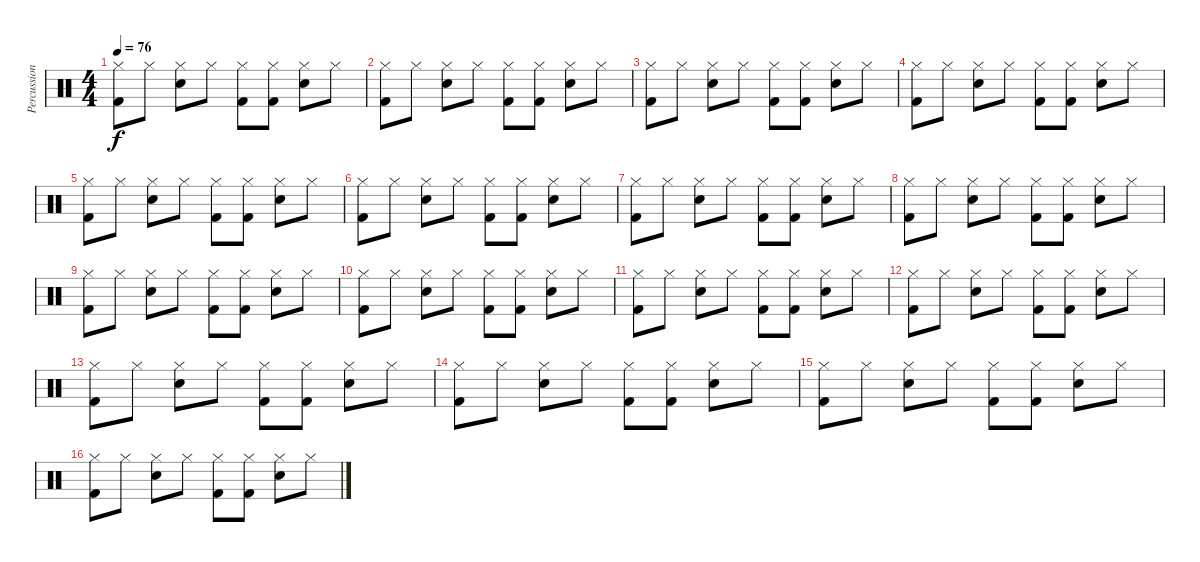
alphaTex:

\track ("Percussion" "Percussion") {instrument percussion}
\staff {score}
\articulation defaults
\ts (4 4)
\tempo 76
\clef neutral
\ks c
("Hi-Hat (closed)" "Kick (hit) 2").8{dy f} "Hi-Hat (closed)".8 ("Hi-Hat (closed)" "Snare (hit) 2").8 "Hi-Hat (closed)".8 ("Hi-Hat (closed)" "Kick (hit) 2").8 ("Hi-Hat (closed)" "Kick (hit) 2").8 ("Hi-Hat (closed)" "Snare (hit) 2").8 "Hi-Hat (closed)".8 |
("Hi-Hat (closed)" "Kick (hit) 2").8 "Hi-Hat (closed)".8 ("Hi-Hat (closed)" "Snare (hit) 2").8 "Hi-Hat (closed)".8 ("Hi-Hat (closed)" "Kick (hit) 2").8 ("Hi-Hat (closed)" "Kick (hit) 2").8 ("Hi-Hat (closed)" "Snare (hit) 2").8 "Hi-Hat (closed)".8 |
("Hi-Hat (closed)" "Kick (hit) 2").8 "Hi-Hat (closed)".8 ("Hi-Hat (closed)" "Snare (hit) 2").8 "Hi-Hat (closed)".8 ("Hi-Hat (closed)" "Kick (hit) 2").8 ("Hi-Hat (closed)" "Kick (hit) 2").8 ("Hi-Hat (closed)" "Snare (hit) 2").8 "Hi-Hat (closed)".8 |
("Hi-Hat (closed)" "Kick (hit) 2").8 "Hi-Hat (closed)".8 ("Hi-Hat (closed)" "Snare (hit) 2").8 "Hi-Hat (closed)".8 ("Hi-Hat (closed)" "Kick (hit) 2").8 ("Hi-Hat (closed)" "Kick (hit) 2").8 ("Hi-Hat (closed)" "Snare (hit) 2").8 "Hi-Hat (closed)".8 |
("Hi-Hat (closed)" "Kick (hit) 2").8 "Hi-Hat (closed)".8 ("Hi-Hat (closed)" "Snare (hit) 2").8 "Hi-Hat (closed)".8 ("Hi-Hat (closed)" "Kick (hit) 2").8 ("Hi-Hat (closed)" "Kick (hit) 2").8 ("Hi-Hat (closed)" "Snare (hit) 2").8 "Hi-Hat (closed)".8 |
("Hi-Hat (closed)" "Kick (hit) 2").8 "Hi-Hat (closed)".8 ("Hi-Hat (closed)" "Snare (hit) 2").8 "Hi-Hat (closed)".8 ("Hi-Hat (closed)" "Kick (hit) 2").8 ("Hi-Hat (closed)" "Kick (hit) 2").8 ("Hi-Hat (closed)" "Snare (hit) 2").8 "Hi-Hat (closed)".8 |
("Hi-Hat (closed)" "Kick (hit) 2").8 "Hi-Hat (closed)".8 ("Hi-Hat (closed)" "Snare (hit) 2").8 "Hi-Hat (closed)".8 ("Hi-Hat (closed)" "Kick (hit) 2").8 ("Hi-Hat (closed)" "Kick (hit) 2").8 ("Hi-Hat (closed)" "Snare (hit) 2").8 "Hi-Hat (closed)".8 |
("Hi-Hat (closed)" "Kick (hit) 2").8 "Hi-Hat (closed)".8 ("Hi-Hat (closed)" "Snare (hit) 2").8 "Hi-Hat (closed)".8 ("Hi-Hat (closed)" "Kick (hit) 2").8 ("Hi-Hat (closed)" "Kick (hit) 2").8 ("Hi-Hat (closed)" "Snare (hit) 2").8 "Hi-Hat (closed)".8 |
("Hi-Hat (closed)" "Kick (hit) 2").8 "Hi-Hat (closed)".8 ("Hi-Hat (closed)" "Snare (hit) 2").8 "Hi-Hat (closed)".8 ("Hi-Hat (closed)" "Kick (hit) 2").8 ("Hi-Hat (closed)" "Kick (hit) 2").8 ("Hi-Hat (closed)" "Snare (hit) 2").8 "Hi-Hat (closed)".8 |
("Hi-Hat (closed)" "Kick (hit) 2").8 "Hi-Hat (closed)".8 ("Hi-Hat (closed)" "Snare (hit) 2").8 "Hi-Hat (closed)".8 ("Hi-Hat (closed)" "Kick (hit) 2").8 ("Hi-Hat (closed)" "Kick (hit) 2").8 ("Hi-Hat (closed)" "Snare (hit) 2").8 "Hi-Hat (closed)".8 |
("Hi-Hat (closed)" "Kick (hit) 2").8 "Hi-Hat (closed)".8 ("Hi-Hat (closed)" "Snare (hit) 2").8 "Hi-Hat (closed)".8 ("Hi-Hat (closed)" "Kick (hit) 2").8 ("Hi-Hat (closed)" "Kick (hit) 2").8 ("Hi-Hat (closed)" "Snare (hit) 2").8 "Hi-Hat (closed)".8 |
("Hi-Hat (closed)" "Kick (hit) 2").8 "Hi-Hat (closed)".8 ("Hi-Hat (closed)" "Snare (hit) 2").8 "Hi-Hat (closed)".8 ("Hi-Hat (closed)" "Kick (hit) 2").8 ("Hi-Hat (closed)" "Kick (hit) 2").8 ("Hi-Hat (closed)" "Snare (hit) 2").8 "Hi-Hat (closed)".8 |
("Hi-Hat (closed)" "Kick (hit) 2").8 "Hi-Hat (closed)".8 ("Hi-Hat (closed)" "Snare (hit) 2").8 "Hi-Hat (closed)".8 ("Hi-Hat (closed)" "Kick (hit) 2").8 ("Hi-Hat (closed)" "Kick (hit) 2").8 ("Hi-Hat (closed)" "Snare (hit) 2").8 "Hi-Hat (closed)".8 |
("Hi-Hat (closed)" "Kick (hit) 2").8 "Hi-Hat (closed)".8 ("Hi-Hat (closed)" "Snare (hit) 2").8 "Hi-Hat (closed)".8 ("Hi-Hat (closed)" "Kick (hit) 2").8 ("Hi-Hat (closed)" "Kick (hit) 2").8 ("Hi-Hat (closed)" "Snare (hit) 2").8 "Hi-Hat (closed)".8 |
("Hi-Hat (closed)" "Kick (hit) 2").8 "Hi-Hat (closed)".8 ("Hi-Hat (closed)" "Snare (hit) 2").8 "Hi-Hat (closed)".8 ("Hi-Hat (closed)" "Kick (hit) 2").8 ("Hi-Hat (closed)" "Kick (hit) 2").8 ("Hi-Hat (closed)" "Snare (hit) 2").8 "Hi-Hat (closed)".8 |
("Hi-Hat (closed)" "Kick (hit) 2").8 "Hi-Hat (closed)".8 ("Hi-Hat (closed)" "Snare (hit) 2").8 "Hi-Hat (closed)".8 ("Hi-Hat (closed)" "Kick (hit) 2").8 ("Hi-Hat (closed)" "Kick (hit) 2").8 ("Hi-Hat (closed)" "Snare (hit) 2").8 "Hi-Hat (closed)".8
